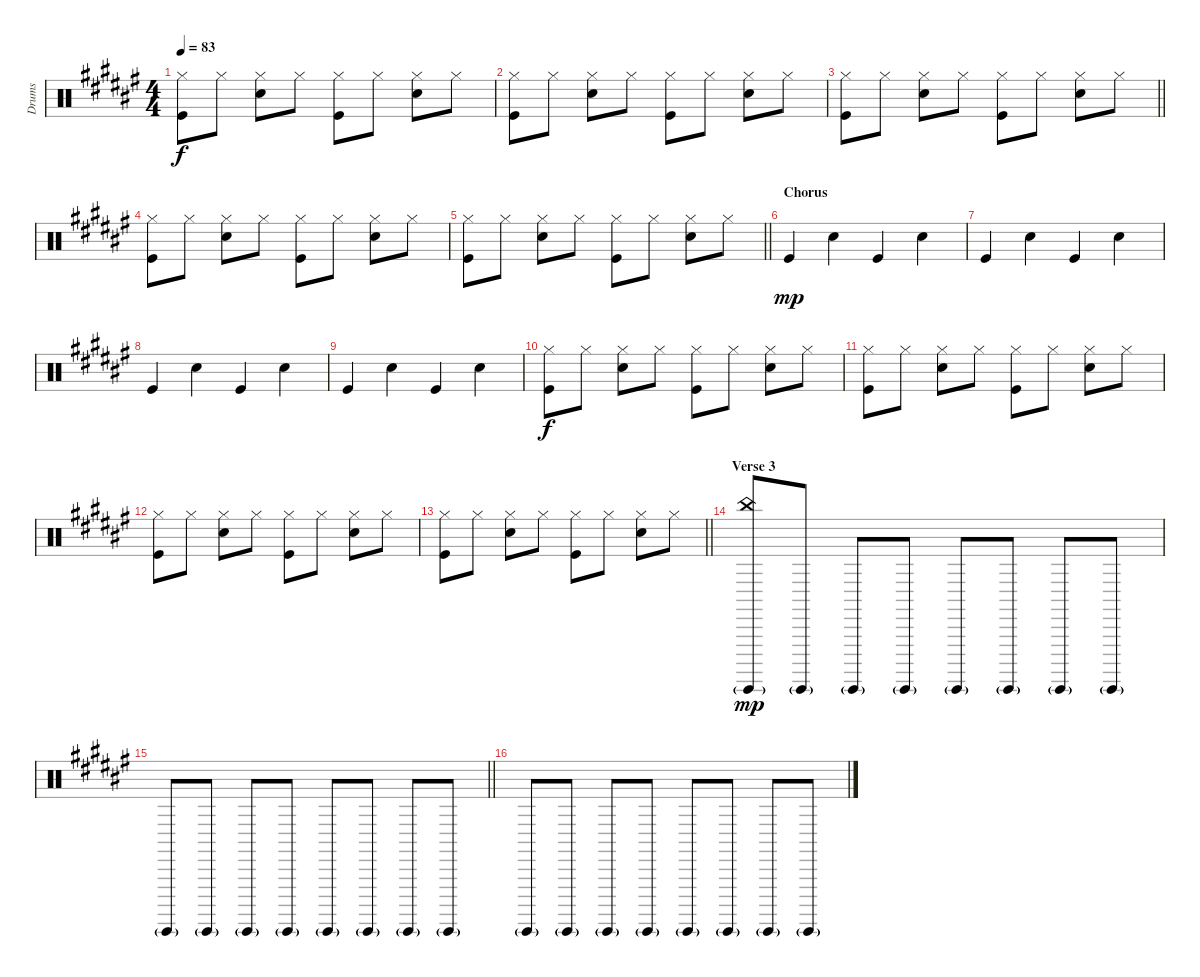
\track ("Drums" "Drums") {instrument percussion}
\staff {score}
\articulation defaults
\ts (4 4)
\tempo 83
\clef neutral
\ks d#minor
("Hi-Hat (closed)" "Kick (hit)").8{dy f} "Hi-Hat (closed)".8 ("Hi-Hat (closed)" "Snare (hit) 2").8 "Hi-Hat (closed)".8 ("Hi-Hat (closed)" "Kick (hit)").8 "Hi-Hat (closed)".8 ("Hi-Hat (closed)" "Snare (hit) 2").8 "Hi-Hat (closed)".8 |
("Hi-Hat (closed)" "Kick (hit)").8 "Hi-Hat (closed)".8 ("Hi-Hat (closed)" "Snare (hit) 2").8 "Hi-Hat (closed)".8 ("Hi-Hat (closed)" "Kick (hit)").8 "Hi-Hat (closed)".8 ("Hi-Hat (closed)" "Snare (hit) 2").8 "Hi-Hat (closed)".8 |
\barLineRight lightlight
("Hi-Hat (closed)" "Kick (hit)").8 "Hi-Hat (closed)".8 ("Hi-Hat (closed)" "Snare (hit) 2").8 "Hi-Hat (closed)".8 ("Hi-Hat (closed)" "Kick (hit)").8 "Hi-Hat (closed)".8 ("Hi-Hat (closed)" "Snare (hit) 2").8 "Hi-Hat (closed)".8 |
("Hi-Hat (closed)" "Kick (hit)").8 "Hi-Hat (closed)".8 ("Hi-Hat (closed)" "Snare (hit) 2").8 "Hi-Hat (closed)".8 ("Hi-Hat (closed)" "Kick (hit)").8 "Hi-Hat (closed)".8 ("Hi-Hat (closed)" "Snare (hit) 2").8 "Hi-Hat (closed)".8 |
\barLineRight lightlight
("Hi-Hat (closed)" "Kick (hit)").8 "Hi-Hat (closed)".8 ("Hi-Hat (closed)" "Snare (hit) 2").8 "Hi-Hat (closed)".8 ("Hi-Hat (closed)" "Kick (hit)").8 "Hi-Hat (closed)".8 ("Hi-Hat (closed)" "Snare (hit) 2").8 "Hi-Hat (closed)".8 |
\section ("" "Chorus")
"Kick (hit)".4{dy mp} "Snare (hit) 2".4 "Kick (hit)".4 "Snare (hit) 2".4 |
"Kick (hit)".4 "Snare (hit) 2".4 "Kick (hit)".4 "Snare (hit) 2".4 |
"Kick (hit)".4 "Snare (hit) 2".4 "Kick (hit)".4 "Snare (hit) 2".4 |
"Kick (hit)".4 "Snare (hit) 2".4 "Kick (hit)".4 "Snare (hit) 2".4 |
("Hi-Hat (closed)" "Kick (hit)").8{dy f} "Hi-Hat (closed)".8 ("Hi-Hat (closed)" "Snare (hit) 2").8 "Hi-Hat (closed)".8 ("Hi-Hat (closed)" "Kick (hit)").8 "Hi-Hat (closed)".8 ("Hi-Hat (closed)" "Snare (hit) 2").8 "Hi-Hat (closed)".8 |
("Hi-Hat (closed)" "Kick (hit)").8 "Hi-Hat (closed)".8 ("Hi-Hat (closed)" "Snare (hit) 2").8 "Hi-Hat (closed)".8 ("Hi-Hat (closed)" "Kick (hit)").8 "Hi-Hat (closed)".8 ("Hi-Hat (closed)" "Snare (hit) 2").8 "Hi-Hat (closed)".8 |
("Hi-Hat (closed)" "Kick (hit)").8 "Hi-Hat (closed)".8 ("Hi-Hat (closed)" "Snare (hit) 2").8 "Hi-Hat (closed)".8 ("Hi-Hat (closed)" "Kick (hit)").8 "Hi-Hat (closed)".8 ("Hi-Hat (closed)" "Snare (hit) 2").8 "Hi-Hat (closed)".8 |
\barLineRight lightlight
("Hi-Hat (closed)" "Kick (hit)").8 "Hi-Hat (closed)".8 ("Hi-Hat (closed)" "Snare (hit) 2").8 "Hi-Hat (closed)".8 ("Hi-Hat (closed)" "Kick (hit)").8 "Hi-Hat (closed)".8 ("Hi-Hat (closed)" "Snare (hit) 2").8 "Hi-Hat (closed)".8 |
\section ("" "Verse 3")
("China (hit)" "Guiro (hit)"{g}).8{dy mp} "Guiro (hit)"{g}.8 "Guiro (hit)"{g}.8 "Guiro (hit)"{g}.8 "Guiro (hit)"{g}.8 "Guiro (hit)"{g}.8 "Guiro (hit)"{g}.8 "Guiro (hit)"{g}.8 |
\barLineRight lightlight "Guiro (hit)"{g}.8 "Guiro (hit)"{g}.8 "Guiro (hit)"{g}.8 "Guiro (hit)"{g}.8 "Guiro (hit)"{g}.8 "Guiro (hit)"{g}.8 "Guiro (hit)"{g}.8 "Guiro (hit)"{g}.8
|
"Guiro (hit)"{g}.8 "Guiro (hit)"{g}.8 "Guiro (hit)"{g}.8 "Guiro (hit)"{g}.8 "Guiro (hit)"{g}.8 "Guiro (hit)"{g}.8 "Guiro (hit)"{g}.8 "Guiro (hit)"{g}.8
